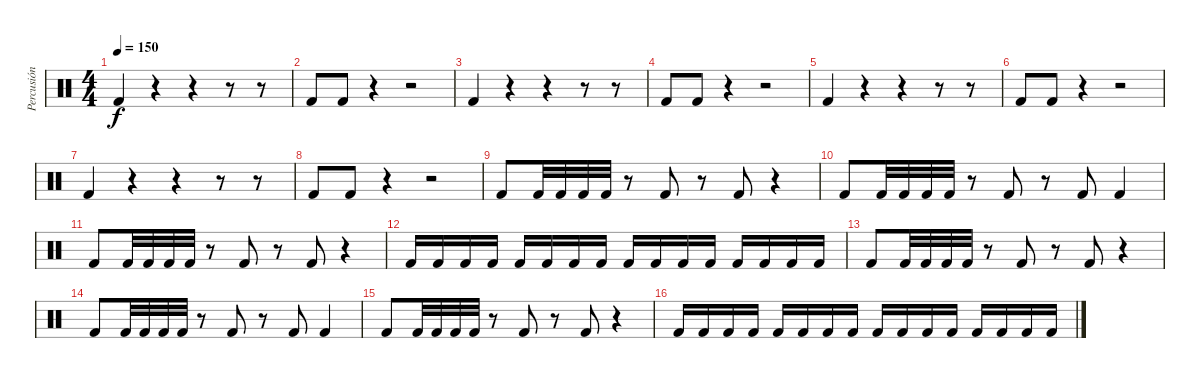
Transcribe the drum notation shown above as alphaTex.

\track ("Percusión" "Percusión") {instrument percussion}
\staff {score}
\articulation defaults
\ts (4 4)
\tempo 150
\clef neutral
\ks c "Kick (hit) 2".4{dy f}
r.4 r.4 r.8 r.8 |
"Kick (hit) 2".8 "Kick (hit) 2".8 r.4 r.2 |
"Kick (hit) 2".4 r.4 r.4 r.8 r.8 |
"Kick (hit) 2".8 "Kick (hit) 2".8 r.4 r.2 |
"Kick (hit) 2".4 r.4 r.4 r.8 r.8 |
"Kick (hit) 2".8 "Kick (hit) 2".8 r.4 r.2 |
"Kick (hit) 2".4 r.4 r.4 r.8 r.8 |
"Kick (hit) 2".8 "Kick (hit) 2".8 r.4 r.2 |
"Kick (hit) 2".8 "Kick (hit) 2".32 "Kick (hit) 2".32 "Kick (hit) 2".32 "Kick (hit) 2".32 r.8 "Kick (hit) 2".8 r.8 "Kick (hit) 2".8 r.4 |
"Kick (hit) 2".8 "Kick (hit) 2".32 "Kick (hit) 2".32 "Kick (hit) 2".32 "Kick (hit) 2".32 r.8 "Kick (hit) 2".8 r.8 "Kick (hit) 2".8 "Kick (hit) 2".4 |
"Kick (hit) 2".8 "Kick (hit) 2".32 "Kick (hit) 2".32 "Kick (hit) 2".32 "Kick (hit) 2".32 r.8 "Kick (hit) 2".8 r.8 "Kick (hit) 2".8 r.4 |
"Kick (hit) 2".16 "Kick (hit) 2".16 "Kick (hit) 2".16 "Kick (hit) 2".16 "Kick (hit) 2".16 "Kick (hit) 2".16 "Kick (hit) 2".16 "Kick (hit) 2".16 "Kick (hit) 2".16 "Kick (hit) 2".16 "Kick (hit) 2".16 "Kick (hit) 2".16 "Kick (hit) 2".16 "Kick (hit) 2".16 "Kick (hit) 2".16 "Kick (hit) 2".16 |
"Kick (hit) 2".8 "Kick (hit) 2".32 "Kick (hit) 2".32 "Kick (hit) 2".32 "Kick (hit) 2".32 r.8 "Kick (hit) 2".8 r.8 "Kick (hit) 2".8 r.4 |
"Kick (hit) 2".8 "Kick (hit) 2".32 "Kick (hit) 2".32 "Kick (hit) 2".32 "Kick (hit) 2".32 r.8 "Kick (hit) 2".8 r.8 "Kick (hit) 2".8 "Kick (hit) 2".4 |
"Kick (hit) 2".8 "Kick (hit) 2".32 "Kick (hit) 2".32 "Kick (hit) 2".32 "Kick (hit) 2".32 r.8 "Kick (hit) 2".8 r.8 "Kick (hit) 2".8 r.4 |
"Kick (hit) 2".16 "Kick (hit) 2".16 "Kick (hit) 2".16 "Kick (hit) 2".16 "Kick (hit) 2".16 "Kick (hit) 2".16 "Kick (hit) 2".16 "Kick (hit) 2".16 "Kick (hit) 2".16 "Kick (hit) 2".16 "Kick (hit) 2".16 "Kick (hit) 2".16 "Kick (hit) 2".16 "Kick (hit) 2".16 "Kick (hit) 2".16 "Kick (hit) 2".16
